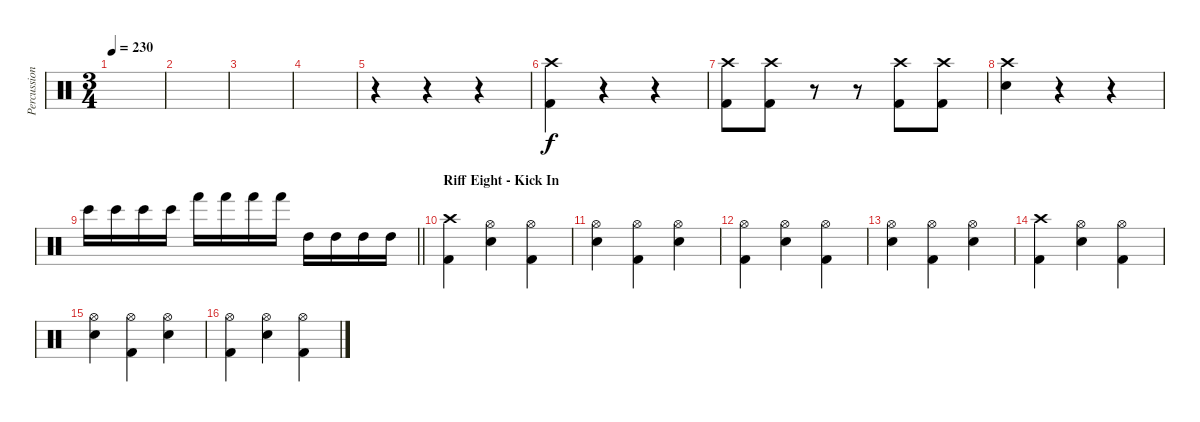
\track ("Percussion" "Percussion") {instrument percussion}
\staff {score}
\articulation defaults
\ts (3 4)
\tempo 230
\clef neutral
\ks c
|
|
|
|
r.4 r.4 r.4 |
("Crash high (hit)" "Kick (hit) 2").4 r.4 r.4 |
("Crash high (hit)" "Kick (hit) 2").8 ("Crash high (hit)" "Kick (hit) 2").8 r.8 r.8 ("Crash high (hit)" "Kick (hit) 2").8 ("Crash high (hit)" "Kick (hit) 2").8 |
("Crash high (hit)" "Electric Snare (hit)").4 r.4 r.4 |
\barLineRight lightlight "Bongo High (hit)".16 "Bongo High (hit)".16 "Bongo High (hit)".16 "Bongo High (hit)".16 "Hand (hit)".16 "Hand (hit)".16 "Hand (hit)".16 "Hand (hit)".16 "High Tom (hit)".16 "High Tom (hit)".16 "High Tom (hit)".16 "High Tom (hit)".16
|
\section ("" "Riff Eight - Kick In")
("Crash high (hit)" "Kick (hit) 2").4 ("Hi-Hat (open)" "Electric Snare (hit)").4 ("Hi-Hat (open)" "Kick (hit) 2").4 |
("Hi-Hat (open)" "Electric Snare (hit)").4 ("Hi-Hat (open)" "Kick (hit) 2").4 ("Hi-Hat (open)" "Electric Snare (hit)").4 |
("Hi-Hat (open)" "Kick (hit) 2").4 ("Hi-Hat (open)" "Electric Snare (hit)").4 ("Hi-Hat (open)" "Kick (hit) 2").4 |
("Hi-Hat (open)" "Electric Snare (hit)").4 ("Hi-Hat (open)" "Kick (hit) 2").4 ("Hi-Hat (open)" "Electric Snare (hit)").4 |
("Crash high (hit)" "Kick (hit) 2").4 ("Hi-Hat (open)" "Electric Snare (hit)").4 ("Hi-Hat (open)" "Kick (hit) 2").4 |
("Hi-Hat (open)" "Electric Snare (hit)").4 ("Hi-Hat (open)" "Kick (hit) 2").4 ("Hi-Hat (open)" "Electric Snare (hit)").4 |
("Hi-Hat (open)" "Kick (hit) 2").4 ("Hi-Hat (open)" "Electric Snare (hit)").4 ("Hi-Hat (open)" "Kick (hit) 2").4
